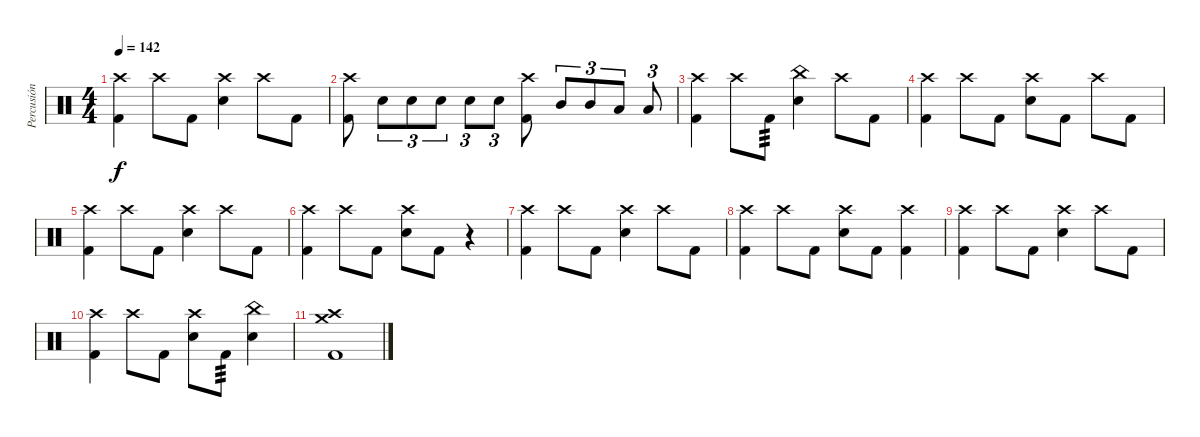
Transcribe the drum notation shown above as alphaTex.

\track ("Percusión" "Percusión") {instrument percussion}
\staff
\articulation defaults
\ts (4 4)
\tempo 142
\clef neutral
\ks c
("Kick (hit) 2" "Crash high (hit)").4{dy f} "Crash high (hit)".8 "Kick (hit) 2".8 ("Crash high (hit)" "Electric Snare (hit)").4 "Crash high (hit)".8 "Kick (hit) 2".8 |
("Kick (hit) 2" "Crash high (hit)").8 "Electric Snare (hit)".8{tu (3 2)} "Electric Snare (hit)".8{tu (3 2)} "Electric Snare (hit)".8{tu (3 2)} "Electric Snare (hit)".8{tu (3 2)} "Electric Snare (hit)".8{tu (3 2)} ("Kick (hit) 2" "Crash high (hit)").8 "Mid Tom (hit)".8{tu (3 2)} "Mid Tom (hit)".8{tu (3 2)} "Low Tom (hit)".8{tu (3 2)} "Low Tom (hit)".8{tu (3 2)} |
("Kick (hit) 2" "Crash high (hit)").4 "Crash high (hit)".8 "Kick (hit) 2".8{tp 3} ("China (hit)" "Electric Snare (hit)").4 "Crash high (hit)".8 "Kick (hit) 2".8 |
("Kick (hit) 2" "Crash high (hit)").4 "Crash high (hit)".8 "Kick (hit) 2".8 ("Crash high (hit)" "Electric Snare (hit)").8 "Kick (hit) 2".8 "Crash high (hit)".8 "Kick (hit) 2".8 |
("Kick (hit) 2" "Crash high (hit)").4 "Crash high (hit)".8 "Kick (hit) 2".8 ("Crash high (hit)" "Electric Snare (hit)").4 "Crash high (hit)".8 "Kick (hit) 2".8 |
("Kick (hit) 2" "Crash high (hit)").4 "Crash high (hit)".8 "Kick (hit) 2".8 ("Crash high (hit)" "Electric Snare (hit)").8 "Kick (hit) 2".8 r.4 |
("Kick (hit) 2" "Crash high (hit)").4 "Crash high (hit)".8 "Kick (hit) 2".8 ("Crash high (hit)" "Electric Snare (hit)").4 "Crash high (hit)".8 "Kick (hit) 2".8 |
("Kick (hit) 2" "Crash high (hit)").4 "Crash high (hit)".8 "Kick (hit) 2".8 ("Crash high (hit)" "Electric Snare (hit)").8 "Kick (hit) 2".8 ("Kick (hit) 2" "Crash high (hit)").4 |
("Kick (hit) 2" "Crash high (hit)").4 "Crash high (hit)".8 "Kick (hit) 2".8 ("Crash high (hit)" "Electric Snare (hit)").4 "Crash high (hit)".8 "Kick (hit) 2".8 |
("Kick (hit) 2" "Crash high (hit)").4 "Crash high (hit)".8 "Kick (hit) 2".8 ("Crash high (hit)" "Electric Snare (hit)").8 "Kick (hit) 2".8{tp 3} ("China (hit)" "Electric Snare (hit)").4 |
("Kick (hit) 2" "Crash high (hit)" "Crash medium (hit)").1
